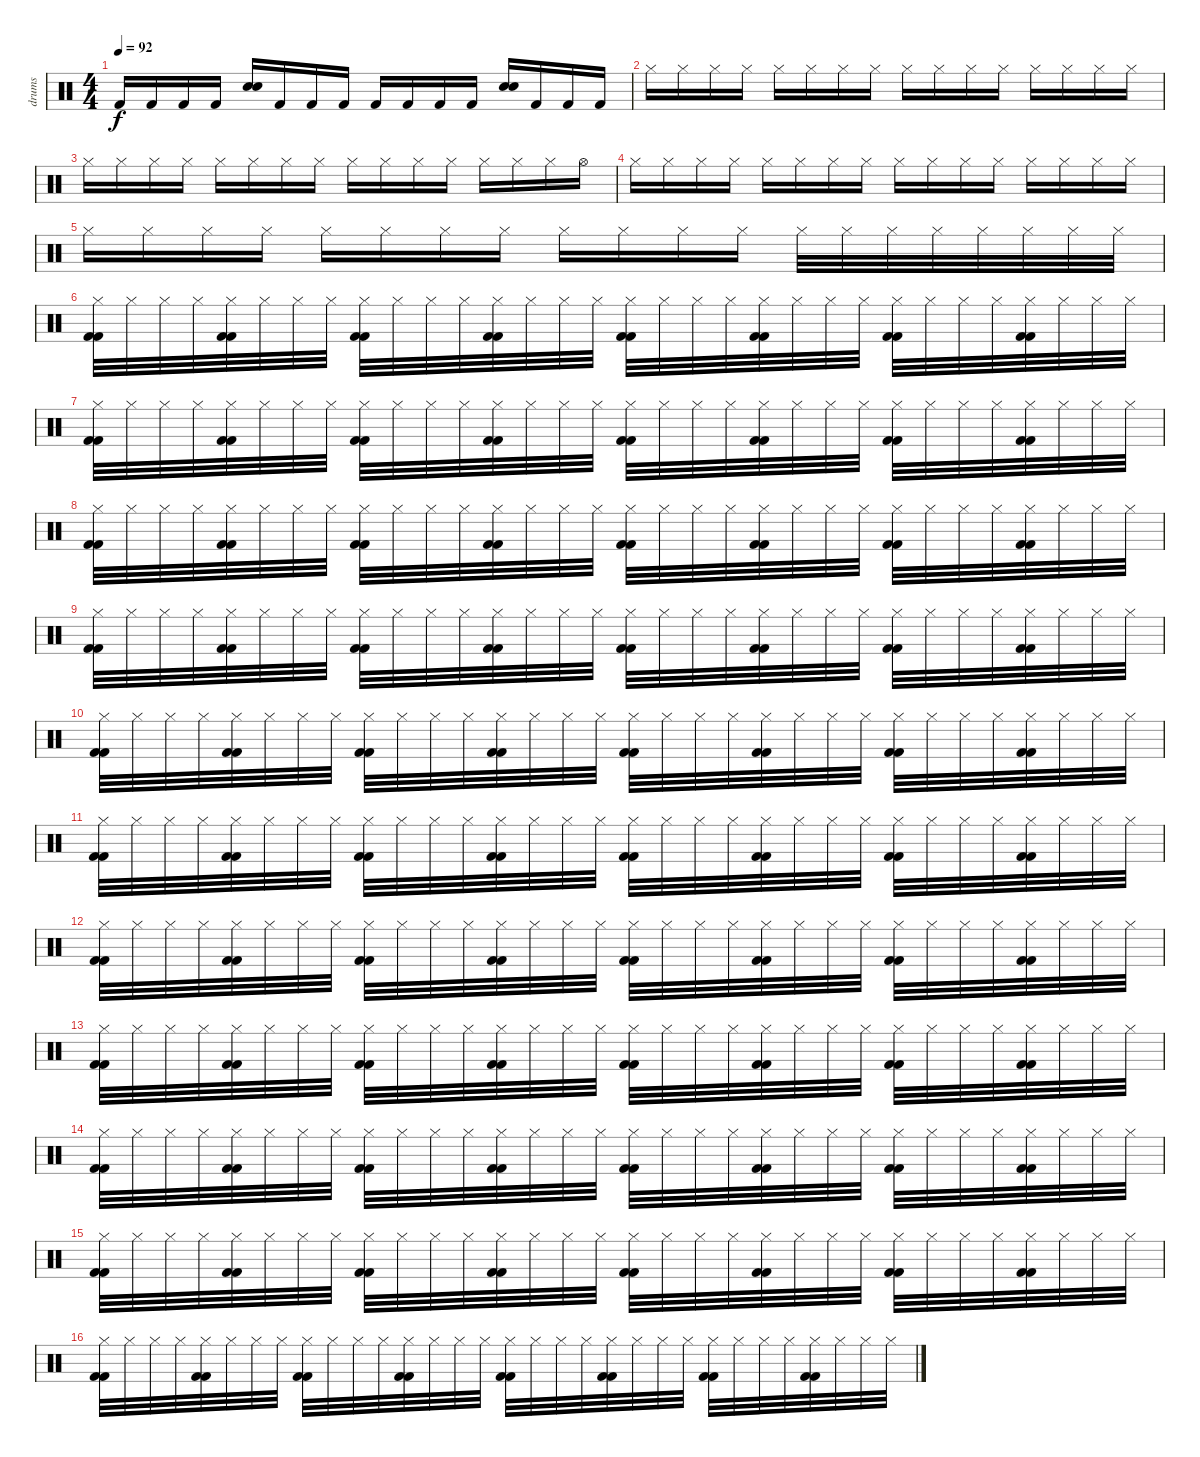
\track ("drums" "drums") {instrument percussion}
\staff {score}
\articulation defaults
\ts (4 4)
\tempo 92
\clef neutral
\ks c "Kick (hit) 2".16{dy f} "Kick (hit) 2".16 "Kick (hit) 2".16 "Kick (hit) 2".16
("Snare (hit) 2" "Snare (hit) 2").16 "Kick (hit) 2".16 "Kick (hit) 2".16 "Kick (hit) 2".16 "Kick (hit) 2".16 "Kick (hit) 2".16 "Kick (hit) 2".16 "Kick (hit) 2".16 ("Snare (hit) 2" "Snare (hit) 2").16 "Kick (hit) 2".16 "Kick (hit) 2".16 "Kick (hit) 2".16 |
"Hi-Hat (closed)".16 "Hi-Hat (closed)".16 "Hi-Hat (closed)".16 "Hi-Hat (closed)".16 "Hi-Hat (closed)".16 "Hi-Hat (closed)".16 "Hi-Hat (closed)".16 "Hi-Hat (closed)".16 "Hi-Hat (closed)".16 "Hi-Hat (closed)".16 "Hi-Hat (closed)".16 "Hi-Hat (closed)".16 "Hi-Hat (closed)".16 "Hi-Hat (closed)".16 "Hi-Hat (closed)".16 "Hi-Hat (closed)".16 |
"Hi-Hat (closed)".16 "Hi-Hat (closed)".16 "Hi-Hat (closed)".16 "Hi-Hat (closed)".16 "Hi-Hat (closed)".16 "Hi-Hat (closed)".16 "Hi-Hat (closed)".16 "Hi-Hat (closed)".16 "Hi-Hat (closed)".16 "Hi-Hat (closed)".16 "Hi-Hat (closed)".16 "Hi-Hat (closed)".16 "Hi-Hat (closed)".16 "Hi-Hat (closed)".16 "Hi-Hat (closed)".16 "Hi-Hat (open)".16 |
"Hi-Hat (closed)".16 "Hi-Hat (closed)".16 "Hi-Hat (closed)".16 "Hi-Hat (closed)".16 "Hi-Hat (closed)".16 "Hi-Hat (closed)".16 "Hi-Hat (closed)".16 "Hi-Hat (closed)".16 "Hi-Hat (closed)".16 "Hi-Hat (closed)".16 "Hi-Hat (closed)".16 "Hi-Hat (closed)".16 "Hi-Hat (closed)".16 "Hi-Hat (closed)".16 "Hi-Hat (closed)".16 "Hi-Hat (closed)".16 |
"Hi-Hat (closed)".16 "Hi-Hat (closed)".16 "Hi-Hat (closed)".16 "Hi-Hat (closed)".16 "Hi-Hat (closed)".16 "Hi-Hat (closed)".16 "Hi-Hat (closed)".16 "Hi-Hat (closed)".16 "Hi-Hat (closed)".16 "Hi-Hat (closed)".16 "Hi-Hat (closed)".16 "Hi-Hat (closed)".16 "Hi-Hat (closed)".32 "Hi-Hat (closed)".32 "Hi-Hat (closed)".32 "Hi-Hat (closed)".32 "Hi-Hat (closed)".32 "Hi-Hat (closed)".32 "Hi-Hat (closed)".32 "Hi-Hat (closed)".32 |
("Hi-Hat (closed)" "Kick (hit) 2" "Kick (hit) 2").32 "Hi-Hat (closed)".32 "Hi-Hat (closed)".32 "Hi-Hat (closed)".32 ("Hi-Hat (closed)" "Kick (hit) 2" "Kick (hit) 2").32 "Hi-Hat (closed)".32 "Hi-Hat (closed)".32 "Hi-Hat (closed)".32 ("Hi-Hat (closed)" "Kick (hit) 2" "Kick (hit) 2").32 "Hi-Hat (closed)".32 "Hi-Hat (closed)".32 "Hi-Hat (closed)".32 ("Hi-Hat (closed)" "Kick (hit) 2" "Kick (hit) 2").32 "Hi-Hat (closed)".32 "Hi-Hat (closed)".32 "Hi-Hat (closed)".32 ("Hi-Hat (closed)" "Kick (hit) 2" "Kick (hit) 2").32 "Hi-Hat (closed)".32 "Hi-Hat (closed)".32 "Hi-Hat (closed)".32 ("Hi-Hat (closed)" "Kick (hit) 2" "Kick (hit) 2").32 "Hi-Hat (closed)".32 "Hi-Hat (closed)".32 "Hi-Hat (closed)".32 ("Hi-Hat (closed)" "Kick (hit) 2" "Kick (hit) 2").32 "Hi-Hat (closed)".32 "Hi-Hat (closed)".32 "Hi-Hat (closed)".32 ("Hi-Hat (closed)" "Kick (hit) 2" "Kick (hit) 2").32 "Hi-Hat (closed)".32 "Hi-Hat (closed)".32 "Hi-Hat (closed)".32 |
("Hi-Hat (closed)" "Kick (hit) 2" "Kick (hit) 2").32 "Hi-Hat (closed)".32 "Hi-Hat (closed)".32 "Hi-Hat (closed)".32 ("Hi-Hat (closed)" "Kick (hit) 2" "Kick (hit) 2").32 "Hi-Hat (closed)".32 "Hi-Hat (closed)".32 "Hi-Hat (closed)".32 ("Hi-Hat (closed)" "Kick (hit) 2" "Kick (hit) 2").32 "Hi-Hat (closed)".32 "Hi-Hat (closed)".32 "Hi-Hat (closed)".32 ("Hi-Hat (closed)" "Kick (hit) 2" "Kick (hit) 2").32 "Hi-Hat (closed)".32 "Hi-Hat (closed)".32 "Hi-Hat (closed)".32 ("Hi-Hat (closed)" "Kick (hit) 2" "Kick (hit) 2").32 "Hi-Hat (closed)".32 "Hi-Hat (closed)".32 "Hi-Hat (closed)".32 ("Hi-Hat (closed)" "Kick (hit) 2" "Kick (hit) 2").32 "Hi-Hat (closed)".32 "Hi-Hat (closed)".32 "Hi-Hat (closed)".32 ("Hi-Hat (closed)" "Kick (hit) 2" "Kick (hit) 2").32 "Hi-Hat (closed)".32 "Hi-Hat (closed)".32 "Hi-Hat (closed)".32 ("Hi-Hat (closed)" "Kick (hit) 2" "Kick (hit) 2").32 "Hi-Hat (closed)".32 "Hi-Hat (closed)".32 "Hi-Hat (closed)".32 |
("Hi-Hat (closed)" "Kick (hit) 2" "Kick (hit) 2").32 "Hi-Hat (closed)".32 "Hi-Hat (closed)".32 "Hi-Hat (closed)".32 ("Hi-Hat (closed)" "Kick (hit) 2" "Kick (hit) 2").32 "Hi-Hat (closed)".32 "Hi-Hat (closed)".32 "Hi-Hat (closed)".32 ("Hi-Hat (closed)" "Kick (hit) 2" "Kick (hit) 2").32 "Hi-Hat (closed)".32 "Hi-Hat (closed)".32 "Hi-Hat (closed)".32 ("Hi-Hat (closed)" "Kick (hit) 2" "Kick (hit) 2").32 "Hi-Hat (closed)".32 "Hi-Hat (closed)".32 "Hi-Hat (closed)".32 ("Hi-Hat (closed)" "Kick (hit) 2" "Kick (hit) 2").32 "Hi-Hat (closed)".32 "Hi-Hat (closed)".32 "Hi-Hat (closed)".32 ("Hi-Hat (closed)" "Kick (hit) 2" "Kick (hit) 2").32 "Hi-Hat (closed)".32 "Hi-Hat (closed)".32 "Hi-Hat (closed)".32 ("Hi-Hat (closed)" "Kick (hit) 2" "Kick (hit) 2").32 "Hi-Hat (closed)".32 "Hi-Hat (closed)".32 "Hi-Hat (closed)".32 ("Hi-Hat (closed)" "Kick (hit) 2" "Kick (hit) 2").32 "Hi-Hat (closed)".32 "Hi-Hat (closed)".32 "Hi-Hat (closed)".32 |
("Hi-Hat (closed)" "Kick (hit) 2" "Kick (hit) 2").32 "Hi-Hat (closed)".32 "Hi-Hat (closed)".32 "Hi-Hat (closed)".32 ("Hi-Hat (closed)" "Kick (hit) 2" "Kick (hit) 2").32 "Hi-Hat (closed)".32 "Hi-Hat (closed)".32 "Hi-Hat (closed)".32 ("Hi-Hat (closed)" "Kick (hit) 2" "Kick (hit) 2").32 "Hi-Hat (closed)".32 "Hi-Hat (closed)".32 "Hi-Hat (closed)".32 ("Hi-Hat (closed)" "Kick (hit) 2" "Kick (hit) 2").32 "Hi-Hat (closed)".32 "Hi-Hat (closed)".32 "Hi-Hat (closed)".32 ("Hi-Hat (closed)" "Kick (hit) 2" "Kick (hit) 2").32 "Hi-Hat (closed)".32 "Hi-Hat (closed)".32 "Hi-Hat (closed)".32 ("Hi-Hat (closed)" "Kick (hit) 2" "Kick (hit) 2").32 "Hi-Hat (closed)".32 "Hi-Hat (closed)".32 "Hi-Hat (closed)".32 ("Hi-Hat (closed)" "Kick (hit) 2" "Kick (hit) 2").32 "Hi-Hat (closed)".32 "Hi-Hat (closed)".32 "Hi-Hat (closed)".32 ("Hi-Hat (closed)" "Kick (hit) 2" "Kick (hit) 2").32 "Hi-Hat (closed)".32 "Hi-Hat (closed)".32 "Hi-Hat (closed)".32 |
("Hi-Hat (closed)" "Kick (hit) 2" "Kick (hit) 2").32 "Hi-Hat (closed)".32 "Hi-Hat (closed)".32 "Hi-Hat (closed)".32 ("Hi-Hat (closed)" "Kick (hit) 2" "Kick (hit) 2").32 "Hi-Hat (closed)".32 "Hi-Hat (closed)".32 "Hi-Hat (closed)".32 ("Hi-Hat (closed)" "Kick (hit) 2" "Kick (hit) 2").32 "Hi-Hat (closed)".32 "Hi-Hat (closed)".32 "Hi-Hat (closed)".32 ("Hi-Hat (closed)" "Kick (hit) 2" "Kick (hit) 2").32 "Hi-Hat (closed)".32 "Hi-Hat (closed)".32 "Hi-Hat (closed)".32 ("Hi-Hat (closed)" "Kick (hit) 2" "Kick (hit) 2").32 "Hi-Hat (closed)".32 "Hi-Hat (closed)".32 "Hi-Hat (closed)".32 ("Hi-Hat (closed)" "Kick (hit) 2" "Kick (hit) 2").32 "Hi-Hat (closed)".32 "Hi-Hat (closed)".32 "Hi-Hat (closed)".32 ("Hi-Hat (closed)" "Kick (hit) 2" "Kick (hit) 2").32 "Hi-Hat (closed)".32 "Hi-Hat (closed)".32 "Hi-Hat (closed)".32 ("Hi-Hat (closed)" "Kick (hit) 2" "Kick (hit) 2").32 "Hi-Hat (closed)".32 "Hi-Hat (closed)".32 "Hi-Hat (closed)".32 |
("Hi-Hat (closed)" "Kick (hit) 2" "Kick (hit) 2").32 "Hi-Hat (closed)".32 "Hi-Hat (closed)".32 "Hi-Hat (closed)".32 ("Hi-Hat (closed)" "Kick (hit) 2" "Kick (hit) 2").32 "Hi-Hat (closed)".32 "Hi-Hat (closed)".32 "Hi-Hat (closed)".32 ("Hi-Hat (closed)" "Kick (hit) 2" "Kick (hit) 2").32 "Hi-Hat (closed)".32 "Hi-Hat (closed)".32 "Hi-Hat (closed)".32 ("Hi-Hat (closed)" "Kick (hit) 2" "Kick (hit) 2").32 "Hi-Hat (closed)".32 "Hi-Hat (closed)".32 "Hi-Hat (closed)".32 ("Hi-Hat (closed)" "Kick (hit) 2" "Kick (hit) 2").32 "Hi-Hat (closed)".32 "Hi-Hat (closed)".32 "Hi-Hat (closed)".32 ("Hi-Hat (closed)" "Kick (hit) 2" "Kick (hit) 2").32 "Hi-Hat (closed)".32 "Hi-Hat (closed)".32 "Hi-Hat (closed)".32 ("Hi-Hat (closed)" "Kick (hit) 2" "Kick (hit) 2").32 "Hi-Hat (closed)".32 "Hi-Hat (closed)".32 "Hi-Hat (closed)".32 ("Hi-Hat (closed)" "Kick (hit) 2" "Kick (hit) 2").32 "Hi-Hat (closed)".32 "Hi-Hat (closed)".32 "Hi-Hat (closed)".32 |
("Hi-Hat (closed)" "Kick (hit) 2" "Kick (hit) 2").32 "Hi-Hat (closed)".32 "Hi-Hat (closed)".32 "Hi-Hat (closed)".32 ("Hi-Hat (closed)" "Kick (hit) 2" "Kick (hit) 2").32 "Hi-Hat (closed)".32 "Hi-Hat (closed)".32 "Hi-Hat (closed)".32 ("Hi-Hat (closed)" "Kick (hit) 2" "Kick (hit) 2").32 "Hi-Hat (closed)".32 "Hi-Hat (closed)".32 "Hi-Hat (closed)".32 ("Hi-Hat (closed)" "Kick (hit) 2" "Kick (hit) 2").32 "Hi-Hat (closed)".32 "Hi-Hat (closed)".32 "Hi-Hat (closed)".32 ("Hi-Hat (closed)" "Kick (hit) 2" "Kick (hit) 2").32 "Hi-Hat (closed)".32 "Hi-Hat (closed)".32 "Hi-Hat (closed)".32 ("Hi-Hat (closed)" "Kick (hit) 2" "Kick (hit) 2").32 "Hi-Hat (closed)".32 "Hi-Hat (closed)".32 "Hi-Hat (closed)".32 ("Hi-Hat (closed)" "Kick (hit) 2" "Kick (hit) 2").32 "Hi-Hat (closed)".32 "Hi-Hat (closed)".32 "Hi-Hat (closed)".32 ("Hi-Hat (closed)" "Kick (hit) 2" "Kick (hit) 2").32 "Hi-Hat (closed)".32 "Hi-Hat (closed)".32 "Hi-Hat (closed)".32 |
("Hi-Hat (closed)" "Kick (hit) 2" "Kick (hit) 2").32 "Hi-Hat (closed)".32 "Hi-Hat (closed)".32 "Hi-Hat (closed)".32 ("Hi-Hat (closed)" "Kick (hit) 2" "Kick (hit) 2").32 "Hi-Hat (closed)".32 "Hi-Hat (closed)".32 "Hi-Hat (closed)".32 ("Hi-Hat (closed)" "Kick (hit) 2" "Kick (hit) 2").32 "Hi-Hat (closed)".32 "Hi-Hat (closed)".32 "Hi-Hat (closed)".32 ("Hi-Hat (closed)" "Kick (hit) 2" "Kick (hit) 2").32 "Hi-Hat (closed)".32 "Hi-Hat (closed)".32 "Hi-Hat (closed)".32 ("Hi-Hat (closed)" "Kick (hit) 2" "Kick (hit) 2").32 "Hi-Hat (closed)".32 "Hi-Hat (closed)".32 "Hi-Hat (closed)".32 ("Hi-Hat (closed)" "Kick (hit) 2" "Kick (hit) 2").32 "Hi-Hat (closed)".32 "Hi-Hat (closed)".32 "Hi-Hat (closed)".32 ("Hi-Hat (closed)" "Kick (hit) 2" "Kick (hit) 2").32 "Hi-Hat (closed)".32 "Hi-Hat (closed)".32 "Hi-Hat (closed)".32 ("Hi-Hat (closed)" "Kick (hit) 2" "Kick (hit) 2").32 "Hi-Hat (closed)".32 "Hi-Hat (closed)".32 "Hi-Hat (closed)".32 |
("Hi-Hat (closed)" "Kick (hit) 2" "Kick (hit) 2").32 "Hi-Hat (closed)".32 "Hi-Hat (closed)".32 "Hi-Hat (closed)".32 ("Hi-Hat (closed)" "Kick (hit) 2" "Kick (hit) 2").32 "Hi-Hat (closed)".32 "Hi-Hat (closed)".32 "Hi-Hat (closed)".32 ("Hi-Hat (closed)" "Kick (hit) 2" "Kick (hit) 2").32 "Hi-Hat (closed)".32 "Hi-Hat (closed)".32 "Hi-Hat (closed)".32 ("Hi-Hat (closed)" "Kick (hit) 2" "Kick (hit) 2").32 "Hi-Hat (closed)".32 "Hi-Hat (closed)".32 "Hi-Hat (closed)".32 ("Hi-Hat (closed)" "Kick (hit) 2" "Kick (hit) 2").32 "Hi-Hat (closed)".32 "Hi-Hat (closed)".32 "Hi-Hat (closed)".32 ("Hi-Hat (closed)" "Kick (hit) 2" "Kick (hit) 2").32 "Hi-Hat (closed)".32 "Hi-Hat (closed)".32 "Hi-Hat (closed)".32 ("Hi-Hat (closed)" "Kick (hit) 2" "Kick (hit) 2").32 "Hi-Hat (closed)".32 "Hi-Hat (closed)".32 "Hi-Hat (closed)".32 ("Hi-Hat (closed)" "Kick (hit) 2" "Kick (hit) 2").32 "Hi-Hat (closed)".32 "Hi-Hat (closed)".32 "Hi-Hat (closed)".32 |
("Hi-Hat (closed)" "Kick (hit) 2" "Kick (hit) 2").32 "Hi-Hat (closed)".32 "Hi-Hat (closed)".32 "Hi-Hat (closed)".32 ("Hi-Hat (closed)" "Kick (hit) 2" "Kick (hit) 2").32 "Hi-Hat (closed)".32 "Hi-Hat (closed)".32 "Hi-Hat (closed)".32 ("Hi-Hat (closed)" "Kick (hit) 2" "Kick (hit) 2").32 "Hi-Hat (closed)".32 "Hi-Hat (closed)".32 "Hi-Hat (closed)".32 ("Hi-Hat (closed)" "Kick (hit) 2" "Kick (hit) 2").32 "Hi-Hat (closed)".32 "Hi-Hat (closed)".32 "Hi-Hat (closed)".32 ("Hi-Hat (closed)" "Kick (hit) 2" "Kick (hit) 2").32 "Hi-Hat (closed)".32 "Hi-Hat (closed)".32 "Hi-Hat (closed)".32 ("Hi-Hat (closed)" "Kick (hit) 2" "Kick (hit) 2").32 "Hi-Hat (closed)".32 "Hi-Hat (closed)".32 "Hi-Hat (closed)".32 ("Hi-Hat (closed)" "Kick (hit) 2" "Kick (hit) 2").32 "Hi-Hat (closed)".32 "Hi-Hat (closed)".32 "Hi-Hat (closed)".32 ("Hi-Hat (closed)" "Kick (hit) 2" "Kick (hit) 2").32 "Hi-Hat (closed)".32 "Hi-Hat (closed)".32 "Hi-Hat (closed)".32 |
("Hi-Hat (closed)" "Kick (hit) 2" "Kick (hit) 2").32 "Hi-Hat (closed)".32 "Hi-Hat (closed)".32 "Hi-Hat (closed)".32 ("Hi-Hat (closed)" "Kick (hit) 2" "Kick (hit) 2").32 "Hi-Hat (closed)".32 "Hi-Hat (closed)".32 "Hi-Hat (closed)".32 ("Hi-Hat (closed)" "Kick (hit) 2" "Kick (hit) 2").32 "Hi-Hat (closed)".32 "Hi-Hat (closed)".32 "Hi-Hat (closed)".32 ("Hi-Hat (closed)" "Kick (hit) 2" "Kick (hit) 2").32 "Hi-Hat (closed)".32 "Hi-Hat (closed)".32 "Hi-Hat (closed)".32 ("Hi-Hat (closed)" "Kick (hit) 2" "Kick (hit) 2").32 "Hi-Hat (closed)".32 "Hi-Hat (closed)".32 "Hi-Hat (closed)".32 ("Hi-Hat (closed)" "Kick (hit) 2" "Kick (hit) 2").32 "Hi-Hat (closed)".32 "Hi-Hat (closed)".32 "Hi-Hat (closed)".32 ("Hi-Hat (closed)" "Kick (hit) 2" "Kick (hit) 2").32 "Hi-Hat (closed)".32 "Hi-Hat (closed)".32 "Hi-Hat (closed)".32 ("Hi-Hat (closed)" "Kick (hit) 2" "Kick (hit) 2").32 "Hi-Hat (closed)".32 "Hi-Hat (closed)".32 "Hi-Hat (closed)".32
